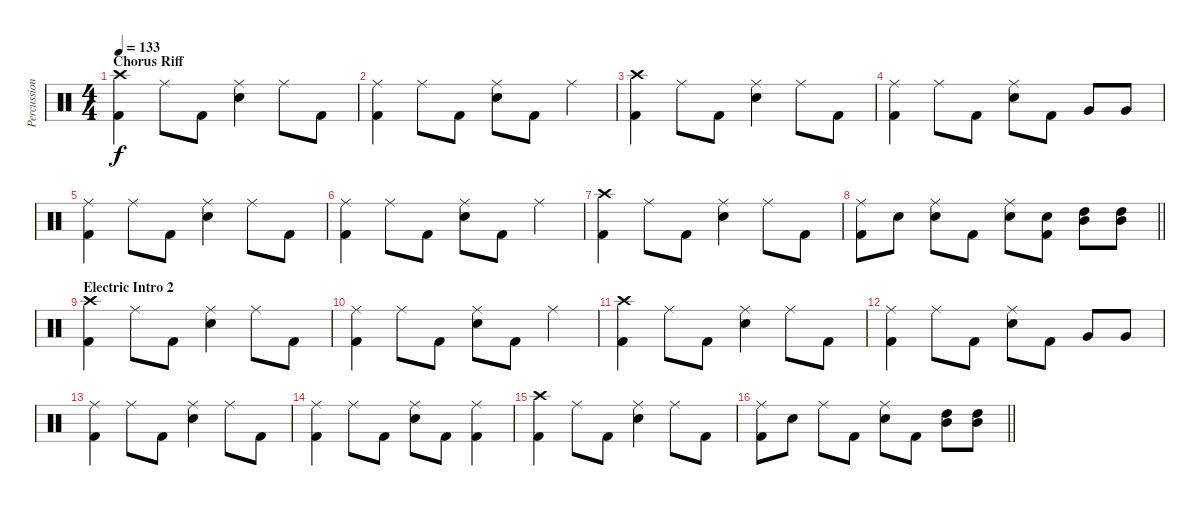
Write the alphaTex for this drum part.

\track ("Percussion" "Percussion") {instrument percussion}
\staff {score}
\articulation defaults
\ts (4 4)
\section ("" "Chorus Riff")
\tempo 133
\clef neutral
\ks c
("Crash high (hit)" "Kick (hit) 2").4{dy f} "Ride (middle)".8 "Kick (hit) 2".8 ("Ride (middle)" "Electric Snare (hit)").4 "Ride (middle)".8 "Kick (hit) 2".8 |
("Ride (middle)" "Kick (hit) 2").4 "Ride (middle)".8 "Kick (hit) 2".8 ("Ride (middle)" "Electric Snare (hit)").8 "Kick (hit) 2".8 "Ride (middle)".4 |
("Crash high (hit)" "Kick (hit) 2").4 "Ride (middle)".8 "Kick (hit) 2".8 ("Ride (middle)" "Electric Snare (hit)").4 "Ride (middle)".8 "Kick (hit) 2".8 |
("Ride (middle)" "Kick (hit) 2").4 "Ride (middle)".8 "Kick (hit) 2".8 ("Ride (middle)" "Electric Snare (hit)").8 "Kick (hit) 2".8 "Very Low Tom (hit)".8 "Very Low Tom (hit)".8 |
("Ride (middle)" "Kick (hit) 2").4 "Ride (middle)".8 "Kick (hit) 2".8 ("Ride (middle)" "Electric Snare (hit)").4 "Ride (middle)".8 "Kick (hit) 2".8 |
("Ride (middle)" "Kick (hit) 2").4 "Ride (middle)".8 "Kick (hit) 2".8 ("Ride (middle)" "Electric Snare (hit)").8 "Kick (hit) 2".8 "Ride (middle)".4 |
("Crash high (hit)" "Kick (hit) 2").4 "Ride (middle)".8 "Kick (hit) 2".8 ("Ride (middle)" "Electric Snare (hit)").4 "Ride (middle)".8 "Kick (hit) 2".8 |
\barLineRight lightlight
("Ride (middle)" "Kick (hit) 2").8 "Electric Snare (hit)".8 ("Ride (middle)" "Electric Snare (hit)").8 "Kick (hit) 2".8 ("Ride (middle)" "Electric Snare (hit)").8 ("Electric Snare (hit)" "Kick (hit) 2").8 ("Mid Tom (hit)" "High Tom (hit)").8 ("Mid Tom (hit)" "High Tom (hit)").8 |
\section ("" "Electric Intro 2")
("Crash high (hit)" "Kick (hit) 2").4 "Ride (middle)".8 "Kick (hit) 2".8 ("Ride (middle)" "Electric Snare (hit)").4 "Ride (middle)".8 "Kick (hit) 2".8 |
("Ride (middle)" "Kick (hit) 2").4 "Ride (middle)".8 "Kick (hit) 2".8 ("Ride (middle)" "Electric Snare (hit)").8 "Kick (hit) 2".8 "Ride (middle)".4 |
("Crash high (hit)" "Kick (hit) 2").4 "Ride (middle)".8 "Kick (hit) 2".8 ("Ride (middle)" "Electric Snare (hit)").4 "Ride (middle)".8 "Kick (hit) 2".8 |
("Ride (middle)" "Kick (hit) 2").4 "Ride (middle)".8 "Kick (hit) 2".8 ("Ride (middle)" "Electric Snare (hit)").8 "Kick (hit) 2".8 "Very Low Tom (hit)".8 "Very Low Tom (hit)".8 |
("Ride (middle)" "Kick (hit) 2").4 "Ride (middle)".8 "Kick (hit) 2".8 ("Ride (middle)" "Electric Snare (hit)").4 "Ride (middle)".8 "Kick (hit) 2".8 |
("Ride (middle)" "Kick (hit) 2").4 "Ride (middle)".8 "Kick (hit) 2".8 ("Ride (middle)" "Electric Snare (hit)").8 "Kick (hit) 2".8 ("Ride (middle)" "Kick (hit) 2").4 |
("Crash high (hit)" "Kick (hit) 2").4 "Ride (middle)".8 "Kick (hit) 2".8 ("Ride (middle)" "Electric Snare (hit)").4 "Ride (middle)".8 "Kick (hit) 2".8 |
\barLineRight lightlight
("Ride (middle)" "Kick (hit) 2").8 "Electric Snare (hit)".8 "Ride (middle)".8 "Kick (hit) 2".8 ("Ride (middle)" "Electric Snare (hit)").8 "Kick (hit) 2".8 ("Mid Tom (hit)" "High Tom (hit)").8 ("Mid Tom (hit)" "High Tom (hit)").8
